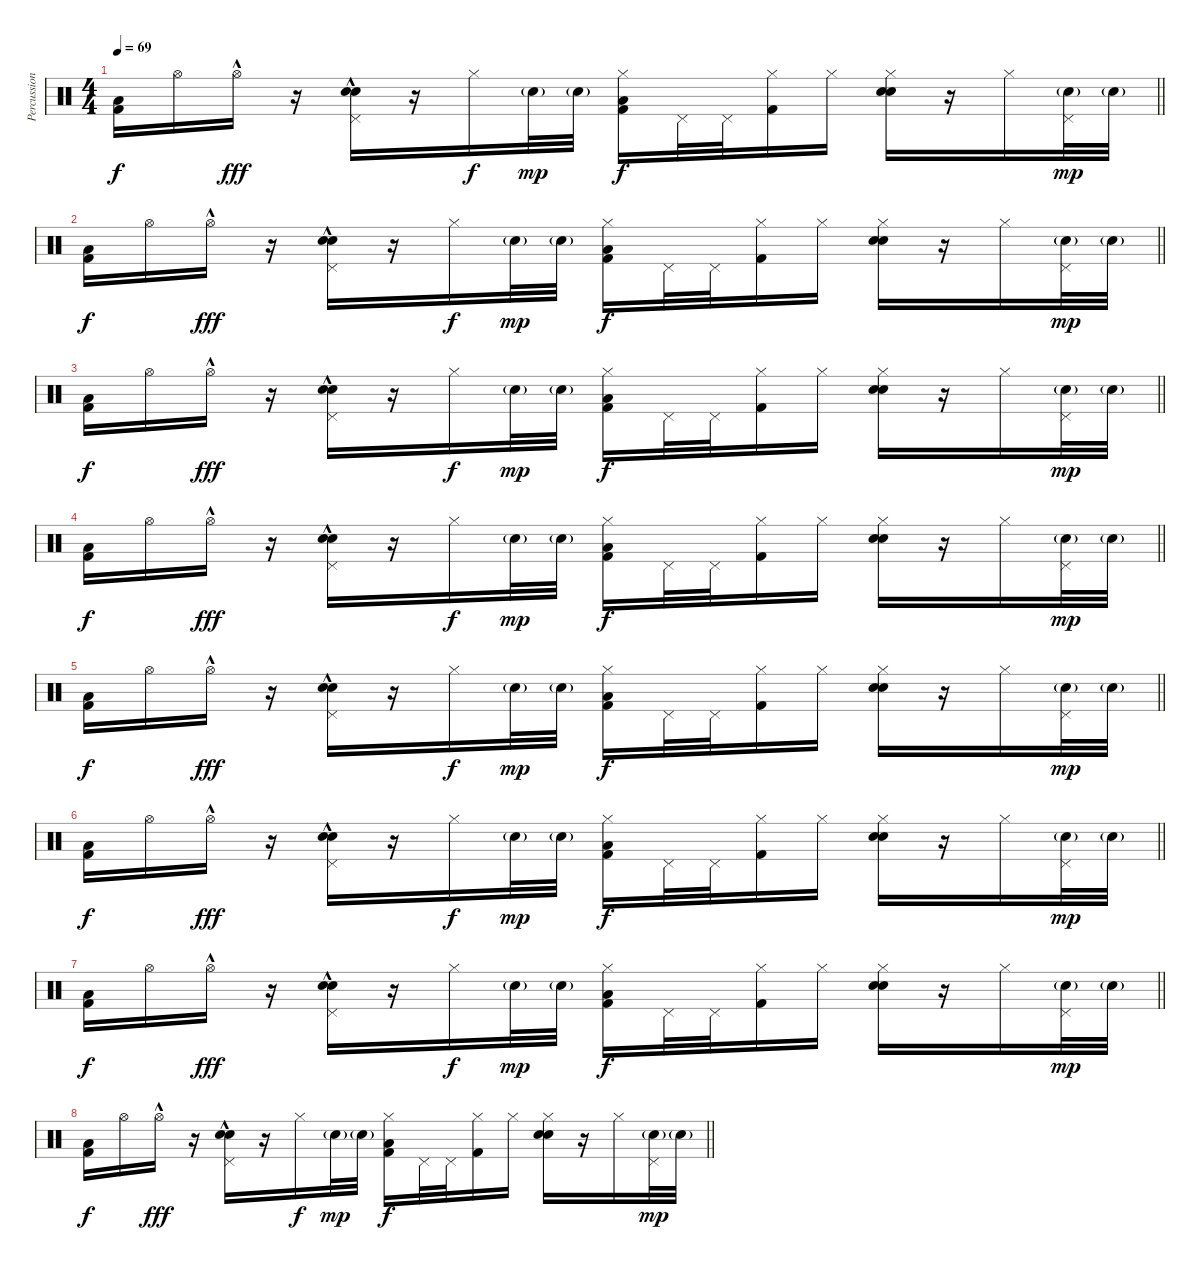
\track ("Percussions" "Percussion") {instrument percussion}
\staff {score}
\articulation defaults
\ts (4 4)
\tempo 69
\clef neutral
\barLineRight lightlight
\ks c
("Low Floor Tom (hit)" "Kick (hit) 2").16{dy f} "Hi-Hat (open)".16 "Hi-Hat (open)"{hac}.16{dy fff} r.16 ("Pedal Hi-Hat (hit)"{hac} "Snare (hit) 2" "Electric Snare (hit)").16 r.16 "Hi-Hat (closed)".16{dy f} "Snare (hit) 2"{g}.32{dy mp} "Snare (hit) 2"{g}.32 ("Hi-Hat (closed)" "Low Floor Tom (hit)" "Kick (hit) 2").16{dy f} "Pedal Hi-Hat (hit)".32 "Pedal Hi-Hat (hit)".32 ("Hi-Hat (closed)" "Kick (hit) 2").16 "Hi-Hat (closed)".16 ("Hi-Hat (closed)" "Snare (hit) 2" "Electric Snare (hit)").16 r.16 "Hi-Hat (closed)".16 ("Pedal Hi-Hat (hit)" "Snare (hit) 2"{g}).32{dy mp} "Snare (hit) 2"{g}.32 |
\barLineRight lightlight
("Low Floor Tom (hit)" "Kick (hit) 2").16{dy f} "Hi-Hat (open)".16 "Hi-Hat (open)"{hac}.16{dy fff} r.16 ("Pedal Hi-Hat (hit)"{hac} "Snare (hit) 2" "Electric Snare (hit)").16 r.16 "Hi-Hat (closed)".16{dy f} "Snare (hit) 2"{g}.32{dy mp} "Snare (hit) 2"{g}.32 ("Hi-Hat (closed)" "Low Floor Tom (hit)" "Kick (hit) 2").16{dy f} "Pedal Hi-Hat (hit)".32 "Pedal Hi-Hat (hit)".32 ("Hi-Hat (closed)" "Kick (hit) 2").16 "Hi-Hat (closed)".16 ("Hi-Hat (closed)" "Snare (hit) 2" "Electric Snare (hit)").16 r.16 "Hi-Hat (closed)".16 ("Pedal Hi-Hat (hit)" "Snare (hit) 2"{g}).32{dy mp} "Snare (hit) 2"{g}.32 |
\barLineRight lightlight
("Low Floor Tom (hit)" "Kick (hit) 2").16{dy f} "Hi-Hat (open)".16 "Hi-Hat (open)"{hac}.16{dy fff} r.16 ("Pedal Hi-Hat (hit)"{hac} "Snare (hit) 2" "Electric Snare (hit)").16 r.16 "Hi-Hat (closed)".16{dy f} "Snare (hit) 2"{g}.32{dy mp} "Snare (hit) 2"{g}.32 ("Hi-Hat (closed)" "Low Floor Tom (hit)" "Kick (hit) 2").16{dy f} "Pedal Hi-Hat (hit)".32 "Pedal Hi-Hat (hit)".32 ("Hi-Hat (closed)" "Kick (hit) 2").16 "Hi-Hat (closed)".16 ("Hi-Hat (closed)" "Snare (hit) 2" "Electric Snare (hit)").16 r.16 "Hi-Hat (closed)".16 ("Pedal Hi-Hat (hit)" "Snare (hit) 2"{g}).32{dy mp} "Snare (hit) 2"{g}.32 |
\barLineRight lightlight
("Low Floor Tom (hit)" "Kick (hit) 2").16{dy f} "Hi-Hat (open)".16 "Hi-Hat (open)"{hac}.16{dy fff} r.16 ("Pedal Hi-Hat (hit)"{hac} "Snare (hit) 2" "Electric Snare (hit)").16 r.16 "Hi-Hat (closed)".16{dy f} "Snare (hit) 2"{g}.32{dy mp} "Snare (hit) 2"{g}.32 ("Hi-Hat (closed)" "Low Floor Tom (hit)" "Kick (hit) 2").16{dy f} "Pedal Hi-Hat (hit)".32 "Pedal Hi-Hat (hit)".32 ("Hi-Hat (closed)" "Kick (hit) 2").16 "Hi-Hat (closed)".16 ("Hi-Hat (closed)" "Snare (hit) 2" "Electric Snare (hit)").16 r.16 "Hi-Hat (closed)".16 ("Pedal Hi-Hat (hit)" "Snare (hit) 2"{g}).32{dy mp} "Snare (hit) 2"{g}.32 |
\barLineRight lightlight
("Low Floor Tom (hit)" "Kick (hit) 2").16{dy f} "Hi-Hat (open)".16 "Hi-Hat (open)"{hac}.16{dy fff} r.16 ("Pedal Hi-Hat (hit)"{hac} "Snare (hit) 2" "Electric Snare (hit)").16 r.16 "Hi-Hat (closed)".16{dy f} "Snare (hit) 2"{g}.32{dy mp} "Snare (hit) 2"{g}.32 ("Hi-Hat (closed)" "Low Floor Tom (hit)" "Kick (hit) 2").16{dy f} "Pedal Hi-Hat (hit)".32 "Pedal Hi-Hat (hit)".32 ("Hi-Hat (closed)" "Kick (hit) 2").16 "Hi-Hat (closed)".16 ("Hi-Hat (closed)" "Snare (hit) 2" "Electric Snare (hit)").16 r.16 "Hi-Hat (closed)".16 ("Pedal Hi-Hat (hit)" "Snare (hit) 2"{g}).32{dy mp} "Snare (hit) 2"{g}.32 |
\barLineRight lightlight
("Low Floor Tom (hit)" "Kick (hit) 2").16{dy f} "Hi-Hat (open)".16 "Hi-Hat (open)"{hac}.16{dy fff} r.16 ("Pedal Hi-Hat (hit)"{hac} "Snare (hit) 2" "Electric Snare (hit)").16 r.16 "Hi-Hat (closed)".16{dy f} "Snare (hit) 2"{g}.32{dy mp} "Snare (hit) 2"{g}.32 ("Hi-Hat (closed)" "Low Floor Tom (hit)" "Kick (hit) 2").16{dy f} "Pedal Hi-Hat (hit)".32 "Pedal Hi-Hat (hit)".32 ("Hi-Hat (closed)" "Kick (hit) 2").16 "Hi-Hat (closed)".16 ("Hi-Hat (closed)" "Snare (hit) 2" "Electric Snare (hit)").16 r.16 "Hi-Hat (closed)".16 ("Pedal Hi-Hat (hit)" "Snare (hit) 2"{g}).32{dy mp} "Snare (hit) 2"{g}.32 |
\barLineRight lightlight
("Low Floor Tom (hit)" "Kick (hit) 2").16{dy f} "Hi-Hat (open)".16 "Hi-Hat (open)"{hac}.16{dy fff} r.16 ("Pedal Hi-Hat (hit)"{hac} "Snare (hit) 2" "Electric Snare (hit)").16 r.16 "Hi-Hat (closed)".16{dy f} "Snare (hit) 2"{g}.32{dy mp} "Snare (hit) 2"{g}.32 ("Hi-Hat (closed)" "Low Floor Tom (hit)" "Kick (hit) 2").16{dy f} "Pedal Hi-Hat (hit)".32 "Pedal Hi-Hat (hit)".32 ("Hi-Hat (closed)" "Kick (hit) 2").16 "Hi-Hat (closed)".16 ("Hi-Hat (closed)" "Snare (hit) 2" "Electric Snare (hit)").16 r.16 "Hi-Hat (closed)".16 ("Pedal Hi-Hat (hit)" "Snare (hit) 2"{g}).32{dy mp} "Snare (hit) 2"{g}.32 |
\barLineRight lightlight
("Low Floor Tom (hit)" "Kick (hit) 2").16{dy f} "Hi-Hat (open)".16 "Hi-Hat (open)"{hac}.16{dy fff} r.16 ("Pedal Hi-Hat (hit)"{hac} "Snare (hit) 2" "Electric Snare (hit)").16 r.16 "Hi-Hat (closed)".16{dy f} "Snare (hit) 2"{g}.32{dy mp} "Snare (hit) 2"{g}.32 ("Hi-Hat (closed)" "Low Floor Tom (hit)" "Kick (hit) 2").16{dy f} "Pedal Hi-Hat (hit)".32 "Pedal Hi-Hat (hit)".32 ("Hi-Hat (closed)" "Kick (hit) 2").16 "Hi-Hat (closed)".16 ("Hi-Hat (closed)" "Snare (hit) 2" "Electric Snare (hit)").16 r.16 "Hi-Hat (closed)".16 ("Pedal Hi-Hat (hit)" "Snare (hit) 2"{g}).32{dy mp} "Snare (hit) 2"{g}.32
